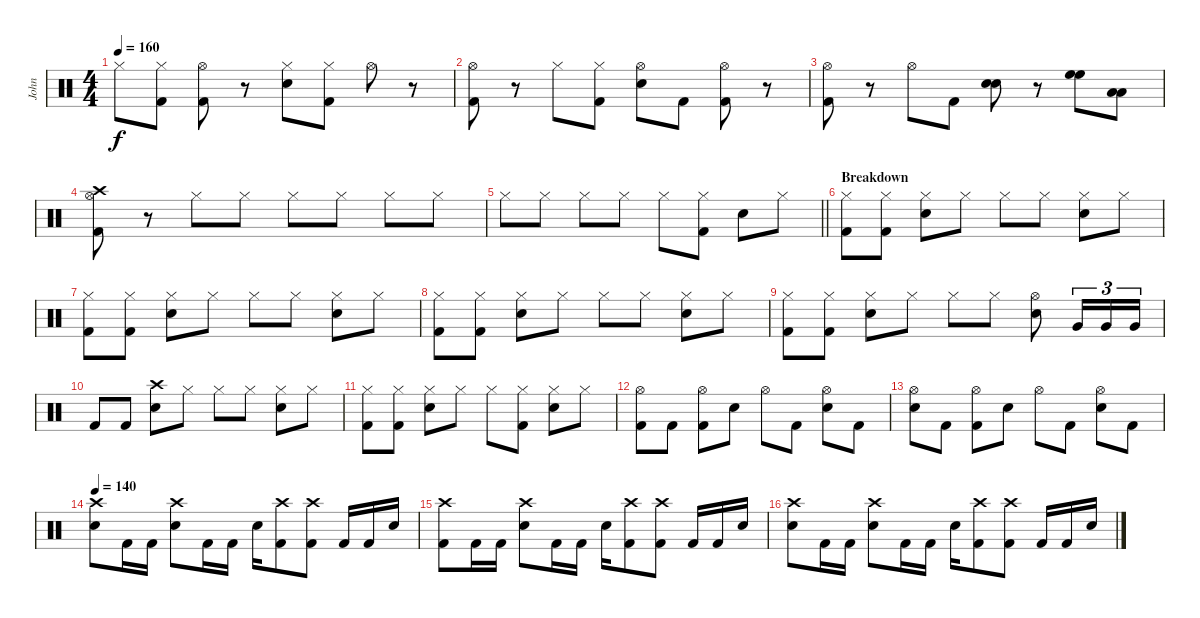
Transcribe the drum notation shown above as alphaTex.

\track ("John" "John") {instrument percussion}
\staff {score}
\articulation defaults
\ts (4 4)
\tempo 160
\clef neutral
\ks c "Hi-Hat (closed)".8{dy f}
("Hi-Hat (closed)" "Kick (hit) 2").8 ("Hi-Hat (open)" "Kick (hit) 2").8 r.8 ("Hi-Hat (closed)" "Snare (hit) 2").8 ("Hi-Hat (closed)" "Kick (hit) 2").8 "Hi-Hat (open)".8 r.8 |
("Hi-Hat (open)" "Kick (hit) 2").8 r.8 "Hi-Hat (closed)".8 ("Hi-Hat (closed)" "Kick (hit) 2").8 ("Hi-Hat (open)" "Snare (hit) 2").8 "Kick (hit) 2".8 ("Hi-Hat (open)" "Kick (hit) 2").8 r.8 |
("Hi-Hat (open)" "Kick (hit) 2").8 r.8 "Hi-Hat (open)".8 "Kick (hit) 2".8 ("Snare (hit) 2" "Snare (hit) 2").8 r.8 ("High Floor Tom (hit)" "High Floor Tom (hit)").8 ("Low Tom (hit)" "Low Tom (hit)").8 |
("Crash high (hit)" "Hi-Hat (open)" "Kick (hit) 2").8 r.8 "Hi-Hat (closed)".8 "Hi-Hat (closed)".8 "Hi-Hat (closed)".8 "Hi-Hat (closed)".8 "Hi-Hat (closed)".8 "Hi-Hat (closed)".8 |
\barLineRight lightlight "Hi-Hat (closed)".8 "Hi-Hat (closed)".8 "Hi-Hat (closed)".8 "Hi-Hat (closed)".8 "Hi-Hat (closed)".8
("Hi-Hat (closed)" "Kick (hit) 2").8 "Snare (hit) 2".8 "Hi-Hat (closed)".8 |
\section ("" "Breakdown")
("Hi-Hat (closed)" "Kick (hit) 2").8 ("Hi-Hat (closed)" "Kick (hit) 2").8 ("Hi-Hat (closed)" "Snare (hit) 2").8 "Hi-Hat (closed)".8 "Hi-Hat (closed)".8 "Hi-Hat (closed)".8 ("Hi-Hat (closed)" "Snare (hit) 2").8 "Hi-Hat (closed)".8 |
("Hi-Hat (closed)" "Kick (hit) 2").8 ("Hi-Hat (closed)" "Kick (hit) 2").8 ("Hi-Hat (closed)" "Snare (hit) 2").8 "Hi-Hat (closed)".8 "Hi-Hat (closed)".8 "Hi-Hat (closed)".8 ("Hi-Hat (closed)" "Snare (hit) 2").8 "Hi-Hat (closed)".8 |
("Hi-Hat (closed)" "Kick (hit) 2").8 ("Hi-Hat (closed)" "Kick (hit) 2").8 ("Hi-Hat (closed)" "Snare (hit) 2").8 "Hi-Hat (closed)".8 "Hi-Hat (closed)".8 "Hi-Hat (closed)".8 ("Hi-Hat (closed)" "Snare (hit) 2").8 "Hi-Hat (closed)".8 |
("Hi-Hat (closed)" "Kick (hit) 2").8 ("Hi-Hat (closed)" "Kick (hit) 2").8 ("Hi-Hat (closed)" "Snare (hit) 2").8 "Hi-Hat (closed)".8 "Hi-Hat (closed)".8 "Hi-Hat (closed)".8 ("Hi-Hat (open)" "Snare (hit) 2").8 "Very Low Tom (hit)".16{tu (3 2)} "Very Low Tom (hit)".16{tu (3 2)} "Very Low Tom (hit)".16{tu (3 2)} |
"Kick (hit) 2".8 "Kick (hit) 2".8 ("Crash high (hit)" "Snare (hit) 2").8 "Hi-Hat (closed)".8 "Hi-Hat (closed)".8 "Hi-Hat (closed)".8 ("Hi-Hat (closed)" "Snare (hit) 2").8 "Hi-Hat (closed)".8 |
("Hi-Hat (closed)" "Kick (hit) 2").8 ("Hi-Hat (closed)" "Kick (hit) 2").8 ("Hi-Hat (closed)" "Snare (hit) 2").8 "Hi-Hat (closed)".8 "Hi-Hat (closed)".8 ("Hi-Hat (closed)" "Kick (hit) 2").8 ("Hi-Hat (closed)" "Snare (hit) 2").8 "Hi-Hat (closed)".8 |
("Hi-Hat (open)" "Kick (hit) 2").8 "Kick (hit) 2".8 ("Hi-Hat (open)" "Kick (hit) 2").8 "Snare (hit) 2".8 "Hi-Hat (open)".8 "Kick (hit) 2".8 ("Hi-Hat (open)" "Snare (hit) 2").8 "Kick (hit) 2".8 |
("Hi-Hat (open)" "Snare (hit) 2").8 "Kick (hit) 2".8 ("Hi-Hat (open)" "Kick (hit) 2").8 "Snare (hit) 2".8 "Hi-Hat (open)".8 "Kick (hit) 2".8 ("Hi-Hat (open)" "Snare (hit) 2").8 "Kick (hit) 2".8 |
\tempo 140
("Crash high (hit)" "Snare (hit) 2").8 "Kick (hit) 2".16 "Kick (hit) 2".16 ("Crash high (hit)" "Snare (hit) 2").8 "Kick (hit) 2".16 "Kick (hit) 2".16 "Snare (hit) 2".16 ("Crash high (hit)" "Kick (hit) 2").8 ("Crash high (hit)" "Kick (hit) 2").8 "Kick (hit) 2".16 "Kick (hit) 2".16 "Snare (hit) 2".16 |
("Crash high (hit)" "Kick (hit) 2").8 "Kick (hit) 2".16 "Kick (hit) 2".16 ("Crash high (hit)" "Snare (hit) 2").8 "Kick (hit) 2".16 "Kick (hit) 2".16 "Snare (hit) 2".16 ("Crash high (hit)" "Kick (hit) 2").8 ("Crash high (hit)" "Kick (hit) 2").8 "Kick (hit) 2".16 "Kick (hit) 2".16 "Snare (hit) 2".16 |
("Crash high (hit)" "Snare (hit) 2").8 "Kick (hit) 2".16 "Kick (hit) 2".16 ("Crash high (hit)" "Snare (hit) 2").8 "Kick (hit) 2".16 "Kick (hit) 2".16 "Snare (hit) 2".16 ("Crash high (hit)" "Kick (hit) 2").8 ("Crash high (hit)" "Kick (hit) 2").8 "Kick (hit) 2".16 "Kick (hit) 2".16 "Snare (hit) 2".16
